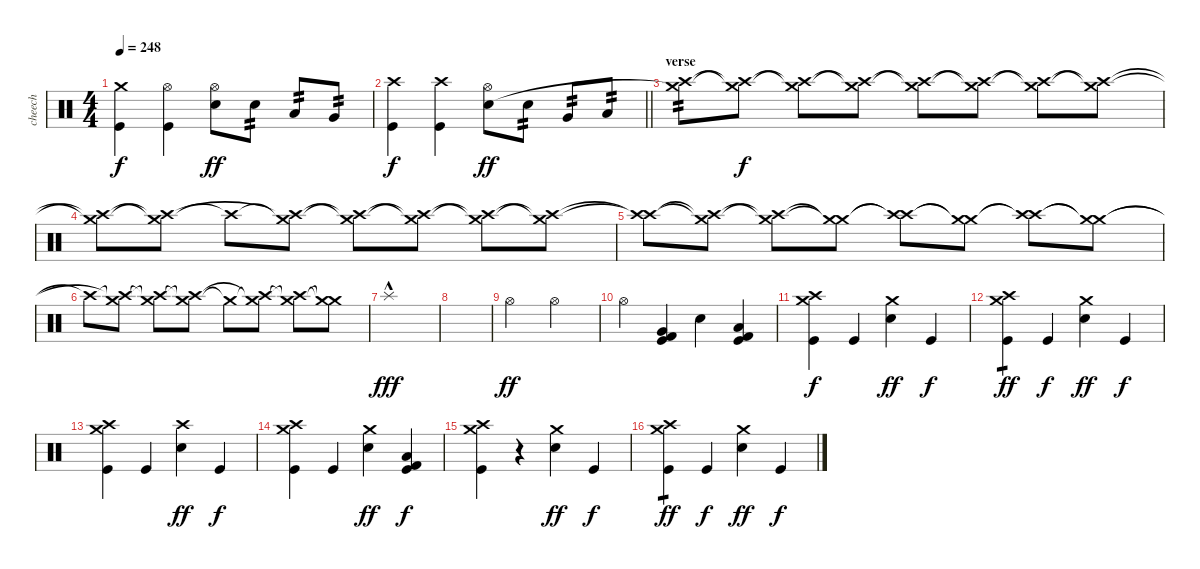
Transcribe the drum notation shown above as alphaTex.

\track ("cheech" "cheech") {instrument percussion}
\staff {score}
\articulation defaults
\ts (4 4)
\tempo 248
\clef neutral
\ks c
("Crash medium (hit)" "Kick (hit)").4{dy f} ("Hi-Hat (open)" "Kick (hit)").4 ("Hi-Hat (open)" "Electric Snare (hit)").8{dy ff} "Electric Snare (hit)".8{tp 2} "Low Tom (hit)".8{tp 2} "Very Low Tom (hit)".8{tp 2} |
\barLineRight lightlight
("Crash high (hit)" "Kick (hit)").4{dy f} ("Crash high (hit)" "Kick (hit)").4 ("Hi-Hat (open)" "Electric Snare (hit)").8{dy ff} "Electric Snare (hit)".8{tp 2} "Very Low Tom (hit)".8{tp 2} "Low Floor Tom (hit)".8{tp 2} |
\section ("" "verse")
("Crash high (hit)" "Crash medium (hit)"{t}).8{tp 2} ("Crash medium (hit)"{t} "Crash high (hit)"{t}).8{dy f} ("Crash high (hit)"{t} "Crash medium (hit)"{t}).8 ("Crash medium (hit)"{t} "Crash high (hit)"{t}).8 ("Crash high (hit)"{t} "Crash medium (hit)"{t}).8 ("Crash medium (hit)"{t} "Crash high (hit)"{t}).8 ("Crash high (hit)"{t} "Crash medium (hit)"{t}).8 ("Crash medium (hit)"{t} "Crash high (hit)"{t}).8 |
("Crash high (hit)"{t} "Crash medium (hit)"{t}).8 ("Crash medium (hit)"{t} "Crash high (hit)"{t}).8 "Crash high (hit)"{t}.8 ("Crash medium (hit)"{t} "Crash high (hit)"{t}).8 ("Crash high (hit)"{t} "Crash medium (hit)"{t}).8 ("Crash medium (hit)"{t} "Crash high (hit)"{t}).8 ("Crash high (hit)"{t} "Crash medium (hit)"{t}).8 ("Crash medium (hit)"{t} "Crash high (hit)"{t}).8 |
("Crash high (hit)"{t} "Crash high (hit)"{t}).8 ("Crash medium (hit)"{t} "Crash high (hit)"{t}).8 ("Crash high (hit)"{t} "Crash medium (hit)"{t}).8 ("Crash medium (hit)"{t} "Crash medium (hit)"{t}).8 ("Crash high (hit)"{t} "Crash high (hit)"{t}).8 ("Crash medium (hit)"{t} "Crash medium (hit)"{t}).8 ("Crash high (hit)"{t} "Crash high (hit)"{t}).8 ("Crash medium (hit)"{t} "Crash medium (hit)"{t}).8 |
"Crash high (hit)"{t}.8 ("Crash medium (hit)"{t} "Crash high (hit)"{t}).8 ("Crash high (hit)"{t} "Crash medium (hit)"{t}).8 ("Crash medium (hit)"{t} "Crash high (hit)"{t}).8 "Crash medium (hit)"{t}.8 ("Crash medium (hit)"{t} "Crash high (hit)"{t}).8 ("Crash high (hit)"{t} "Crash medium (hit)"{t}).8 ("Crash medium (hit)"{t} "Crash medium (hit)"{t}).8 |
"Splash (hit)"{hac}.1{dy fff} |
|
"Hi-Hat (open)".2{dy ff} "Hi-Hat (open)".2 |
"Hi-Hat (open)".4 ("Very Low Tom (hit)" "Kick (hit) 2" "Kick (hit)").4 "Electric Snare (hit)".4 ("Low Floor Tom (hit)" "Kick (hit) 2" "Kick (hit)").4 |
("Crash medium (hit)" "Crash high (hit)" "Kick (hit)").4{dy f} "Kick (hit)".4 ("Crash medium (hit)" "Electric Snare (hit)").4{dy ff} "Kick (hit)".4{dy f} |
("Crash medium (hit)" "Crash high (hit)" "Kick (hit)").4{tp 1 dy ff} "Kick (hit)".4{dy f} ("Crash medium (hit)" "Electric Snare (hit)").4{dy ff} "Kick (hit)".4{dy f} |
("Crash medium (hit)" "Crash high (hit)" "Kick (hit)").4 "Kick (hit)".4 ("Crash high (hit)" "Electric Snare (hit)").4{dy ff} "Kick (hit)".4{dy f} |
("Crash medium (hit)" "Crash high (hit)" "Kick (hit)").4 "Kick (hit)".4 ("Crash medium (hit)" "Electric Snare (hit)").4{dy ff} ("Low Floor Tom (hit)" "Kick (hit) 2" "Kick (hit)").4{dy f} |
("Crash medium (hit)" "Crash high (hit)" "Kick (hit)").4 r.4 ("Crash medium (hit)" "Electric Snare (hit)").4{dy ff} "Kick (hit)".4{dy f} |
("Crash medium (hit)" "Crash high (hit)" "Kick (hit)").4{tp 1 dy ff} "Kick (hit)".4{dy f} ("Crash medium (hit)" "Electric Snare (hit)").4{dy ff} "Kick (hit)".4{dy f}
